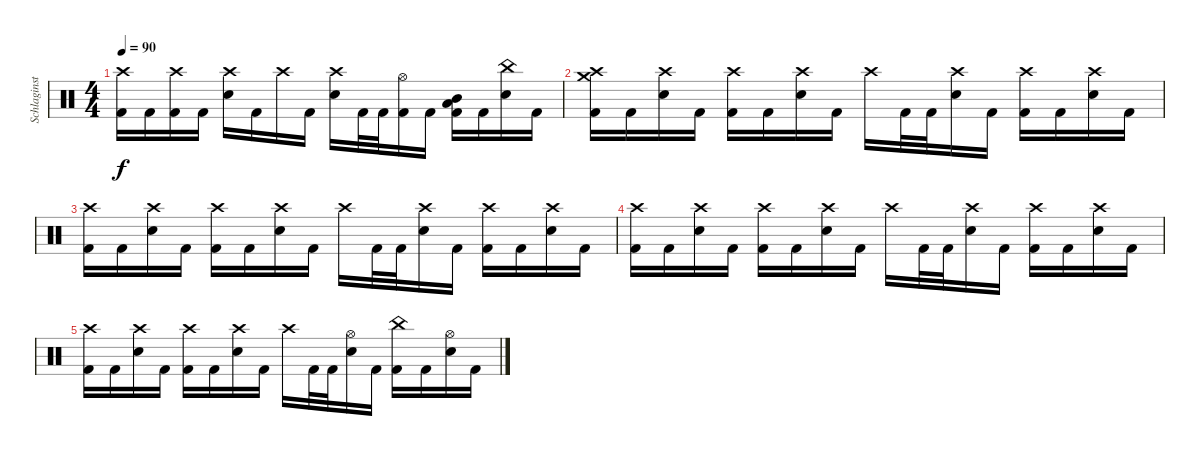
\track ("Schlaginstrumente - Auswahl" "Schlaginst") {instrument percussion}
\staff {score}
\articulation defaults
\ts (4 4)
\tempo 90
\clef neutral
\ks c
("Crash high (hit)" "Kick (hit) 2").16{dy f} "Kick (hit) 2".16 ("Crash high (hit)" "Kick (hit) 2").16 "Kick (hit) 2".16 ("Crash high (hit)" "Electric Snare (hit)").16 "Kick (hit) 2".16 "Crash high (hit)".16 "Kick (hit) 2".16 ("Crash high (hit)" "Electric Snare (hit)").16 "Kick (hit) 2".32 "Kick (hit) 2".32 ("Hi-Hat (open)" "Kick (hit) 2").16 "Kick (hit) 2".16 ("Mid Tom (hit)" "Low Tom (hit)" "Kick (hit) 2").16 "Kick (hit) 2".16 ("China (hit)" "Electric Snare (hit)").16 "Kick (hit) 2".16 |
("Crash high (hit)" "Crash medium (hit)" "Kick (hit) 2").16 "Kick (hit) 2".16 ("Crash high (hit)" "Electric Snare (hit)").16 "Kick (hit) 2".16 ("Crash high (hit)" "Kick (hit) 2").16 "Kick (hit) 2".16 ("Crash high (hit)" "Electric Snare (hit)").16 "Kick (hit) 2".16 "Crash high (hit)".16 "Kick (hit) 2".32 "Kick (hit) 2".32 ("Crash high (hit)" "Electric Snare (hit)").16 "Kick (hit) 2".16 ("Crash high (hit)" "Kick (hit) 2").16 "Kick (hit) 2".16 ("Crash high (hit)" "Electric Snare (hit)").16 "Kick (hit) 2".16 |
("Crash high (hit)" "Kick (hit) 2").16 "Kick (hit) 2".16 ("Crash high (hit)" "Electric Snare (hit)").16 "Kick (hit) 2".16 ("Crash high (hit)" "Kick (hit) 2").16 "Kick (hit) 2".16 ("Crash high (hit)" "Electric Snare (hit)").16 "Kick (hit) 2".16 "Crash high (hit)".16 "Kick (hit) 2".32 "Kick (hit) 2".32 ("Crash high (hit)" "Electric Snare (hit)").16 "Kick (hit) 2".16 ("Crash high (hit)" "Kick (hit) 2").16 "Kick (hit) 2".16 ("Crash high (hit)" "Electric Snare (hit)").16 "Kick (hit) 2".16 |
("Crash high (hit)" "Kick (hit) 2").16 "Kick (hit) 2".16 ("Crash high (hit)" "Electric Snare (hit)").16 "Kick (hit) 2".16 ("Crash high (hit)" "Kick (hit) 2").16 "Kick (hit) 2".16 ("Crash high (hit)" "Electric Snare (hit)").16 "Kick (hit) 2".16 "Crash high (hit)".16 "Kick (hit) 2".32 "Kick (hit) 2".32 ("Crash high (hit)" "Electric Snare (hit)").16 "Kick (hit) 2".16 ("Crash high (hit)" "Kick (hit) 2").16 "Kick (hit) 2".16 ("Crash high (hit)" "Electric Snare (hit)").16 "Kick (hit) 2".16 |
("Crash high (hit)" "Kick (hit) 2").16 "Kick (hit) 2".16 ("Crash high (hit)" "Electric Snare (hit)").16 "Kick (hit) 2".16 ("Crash high (hit)" "Kick (hit) 2").16 "Kick (hit) 2".16 ("Crash high (hit)" "Electric Snare (hit)").16 "Kick (hit) 2".16 "Crash high (hit)".16 "Kick (hit) 2".32 "Kick (hit) 2".32 ("Hi-Hat (open)" "Electric Snare (hit)").16 "Kick (hit) 2".16 ("China (hit)" "Kick (hit) 2").16 "Kick (hit) 2".16 ("Hi-Hat (open)" "Electric Snare (hit)").16 "Kick (hit) 2".16
